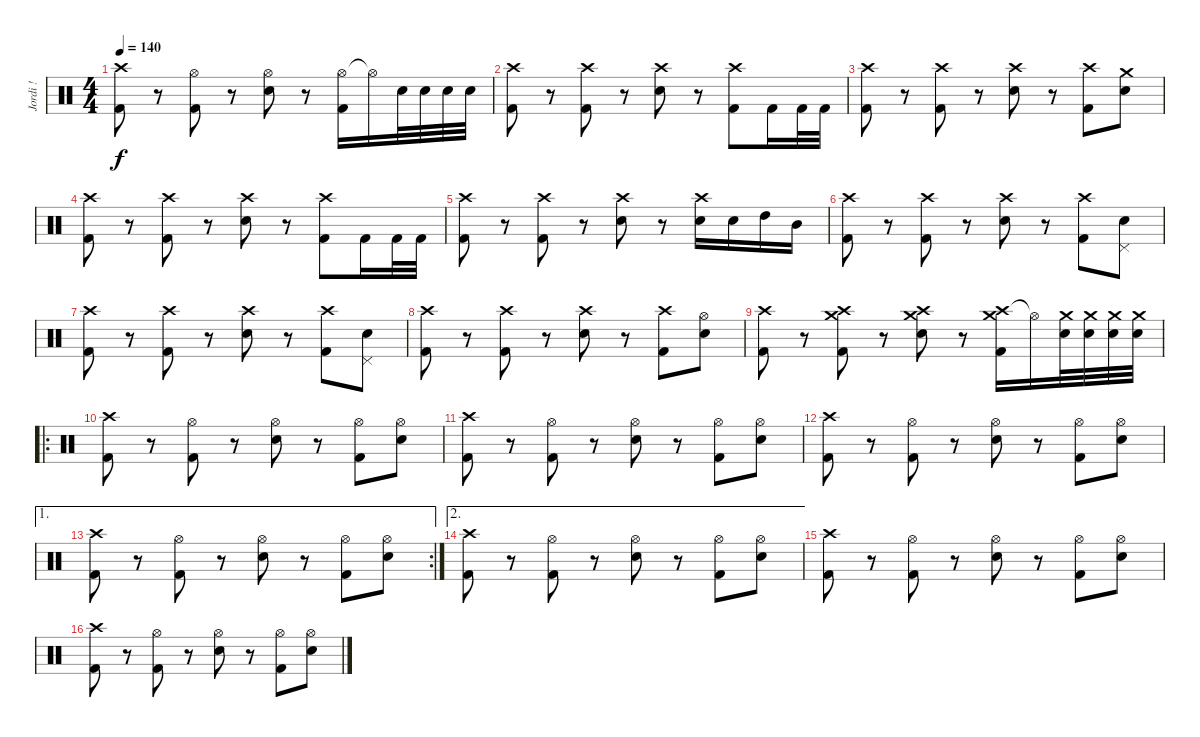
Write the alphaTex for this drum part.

\track ("Jordi !" "Jordi !") {instrument percussion}
\staff {score}
\articulation defaults
\ts (4 4)
\tempo 140
\clef neutral
\ks c
("Crash high (hit)" "Kick (hit) 2").8{dy f} r.8 ("Hi-Hat (open)" "Kick (hit) 2").8 r.8 ("Hi-Hat (open)" "Electric Snare (hit)").8 r.8 ("Hi-Hat (open)" "Kick (hit) 2").16 "Hi-Hat (open)"{t}.16 "Electric Snare (hit)".32 "Electric Snare (hit)".32 "Electric Snare (hit)".32 "Electric Snare (hit)".32 |
("Crash high (hit)" "Kick (hit) 2").8 r.8 ("Crash high (hit)" "Kick (hit) 2").8 r.8 ("Crash high (hit)" "Electric Snare (hit)").8 r.8 ("Crash high (hit)" "Kick (hit) 2").8 "Kick (hit) 2".16 "Kick (hit) 2".32 "Kick (hit) 2".32 |
("Crash high (hit)" "Kick (hit) 2").8 r.8 ("Crash high (hit)" "Kick (hit) 2").8 r.8 ("Crash high (hit)" "Electric Snare (hit)").8 r.8 ("Crash high (hit)" "Kick (hit) 2").8 ("Crash medium (hit)" "Electric Snare (hit)").8 |
("Crash high (hit)" "Kick (hit) 2").8 r.8 ("Crash high (hit)" "Kick (hit) 2").8 r.8 ("Crash high (hit)" "Electric Snare (hit)").8 r.8 ("Crash high (hit)" "Kick (hit) 2").8 "Kick (hit) 2".16 "Kick (hit) 2".32 "Kick (hit) 2".32 |
("Crash high (hit)" "Kick (hit) 2").8 r.8 ("Crash high (hit)" "Kick (hit) 2").8 r.8 ("Crash high (hit)" "Electric Snare (hit)").8 r.8 ("Crash high (hit)" "Electric Snare (hit)").16 "Electric Snare (hit)".16 "High Tom (hit)".16 "Mid Tom (hit)".16 |
("Crash high (hit)" "Kick (hit) 2").8 r.8 ("Crash high (hit)" "Kick (hit) 2").8 r.8 ("Crash high (hit)" "Electric Snare (hit)").8 r.8 ("Crash high (hit)" "Kick (hit) 2").8 ("Pedal Hi-Hat (hit)" "Electric Snare (hit)").8 |
("Crash high (hit)" "Kick (hit) 2").8 r.8 ("Crash high (hit)" "Kick (hit) 2").8 r.8 ("Crash high (hit)" "Electric Snare (hit)").8 r.8 ("Crash high (hit)" "Kick (hit) 2").8 ("Pedal Hi-Hat (hit)" "Electric Snare (hit)").8 |
("Crash high (hit)" "Kick (hit) 2").8 r.8 ("Crash high (hit)" "Kick (hit) 2").8 r.8 ("Crash high (hit)" "Electric Snare (hit)").8 r.8 ("Crash high (hit)" "Kick (hit) 2").8 ("Hi-Hat (open)" "Electric Snare (hit)").8 |
("Crash high (hit)" "Kick (hit) 2").8 r.8 ("Crash high (hit)" "Crash medium (hit)" "Kick (hit) 2").8 r.8 ("Crash high (hit)" "Crash medium (hit)" "Electric Snare (hit)").8 r.8 ("Crash high (hit)" "Crash medium (hit)" "Kick (hit) 2").16 "Hi-Hat (open)"{t}.16 ("Crash medium (hit)" "Electric Snare (hit)").32 ("Crash medium (hit)" "Electric Snare (hit)").32 ("Crash medium (hit)" "Electric Snare (hit)").32 ("Crash medium (hit)" "Electric Snare (hit)").32 |
\ro
("Crash high (hit)" "Kick (hit) 2").8 r.8 ("Hi-Hat (open)" "Kick (hit) 2").8 r.8 ("Hi-Hat (open)" "Electric Snare (hit)").8 r.8 ("Hi-Hat (open)" "Kick (hit) 2").8 ("Hi-Hat (open)" "Electric Snare (hit)").8 |
("Crash high (hit)" "Kick (hit) 2").8 r.8 ("Hi-Hat (open)" "Kick (hit) 2").8 r.8 ("Hi-Hat (open)" "Electric Snare (hit)").8 r.8 ("Hi-Hat (open)" "Kick (hit) 2").8 ("Hi-Hat (open)" "Electric Snare (hit)").8 |
("Crash high (hit)" "Kick (hit) 2").8 r.8 ("Hi-Hat (open)" "Kick (hit) 2").8 r.8 ("Hi-Hat (open)" "Electric Snare (hit)").8 r.8 ("Hi-Hat (open)" "Kick (hit) 2").8 ("Hi-Hat (open)" "Electric Snare (hit)").8 |
\ae 1
\rc 2
("Crash high (hit)" "Kick (hit) 2").8 r.8 ("Hi-Hat (open)" "Kick (hit) 2").8 r.8 ("Hi-Hat (open)" "Electric Snare (hit)").8 r.8 ("Hi-Hat (open)" "Kick (hit) 2").8 ("Hi-Hat (open)" "Electric Snare (hit)").8 |
\ae 2
("Crash high (hit)" "Kick (hit) 2").8 r.8 ("Hi-Hat (open)" "Kick (hit) 2").8 r.8 ("Hi-Hat (open)" "Electric Snare (hit)").8 r.8 ("Hi-Hat (open)" "Kick (hit) 2").8 ("Hi-Hat (open)" "Electric Snare (hit)").8 |
("Crash high (hit)" "Kick (hit) 2").8 r.8 ("Hi-Hat (open)" "Kick (hit) 2").8 r.8 ("Hi-Hat (open)" "Electric Snare (hit)").8 r.8 ("Hi-Hat (open)" "Kick (hit) 2").8 ("Hi-Hat (open)" "Electric Snare (hit)").8 |
("Crash high (hit)" "Kick (hit) 2").8 r.8 ("Hi-Hat (open)" "Kick (hit) 2").8 r.8 ("Hi-Hat (open)" "Electric Snare (hit)").8 r.8 ("Hi-Hat (open)" "Kick (hit) 2").8 ("Hi-Hat (open)" "Electric Snare (hit)").8
